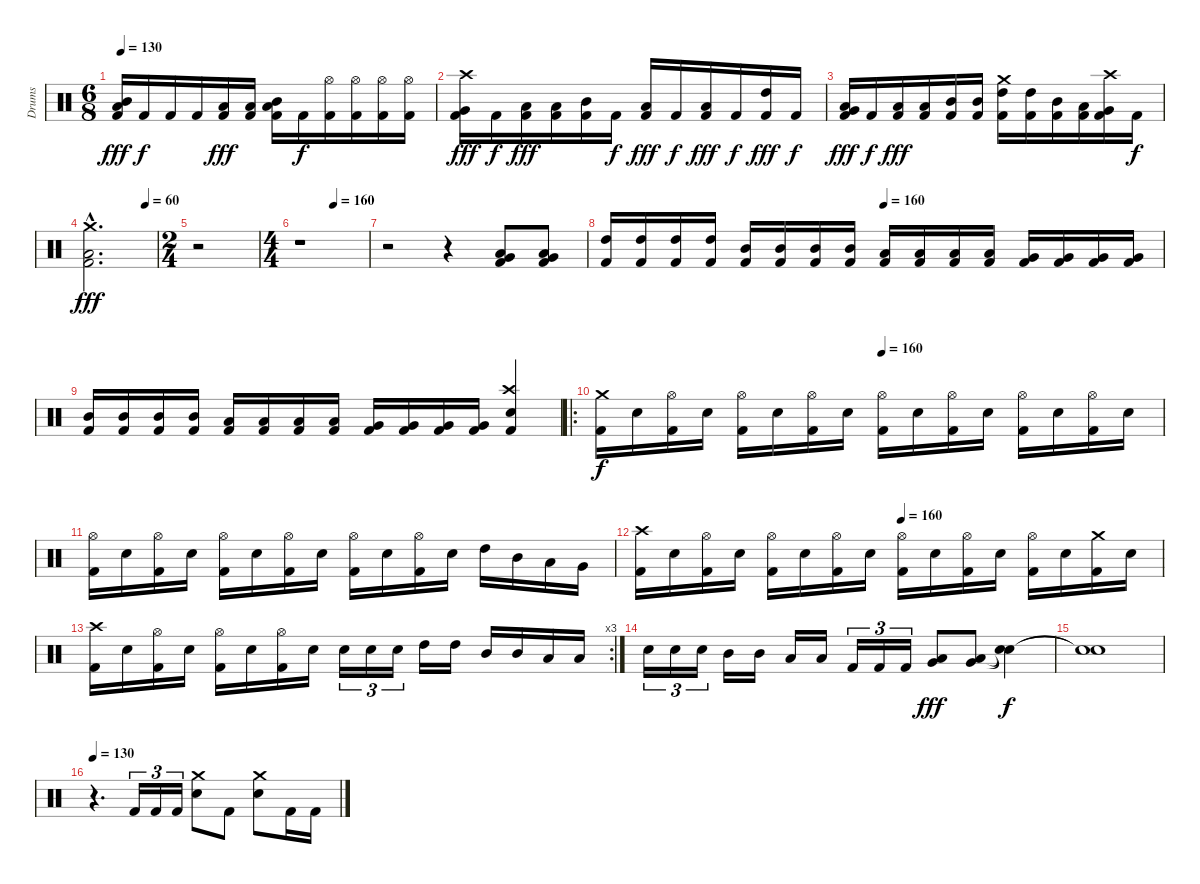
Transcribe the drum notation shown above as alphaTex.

\track ("Drums" "Drums") {instrument percussion}
\staff {score}
\articulation defaults
\ts (6 8)
\tempo 130
\clef neutral
\ks c
("Kick (hit) 2" "Low Floor Tom (hit)" "Mid Tom (hit)").16{dy fff} "Kick (hit) 2".16{dy f} "Kick (hit) 2".16 "Kick (hit) 2".16 ("Kick (hit) 2" "Low Tom (hit)").16{dy fff} ("Kick (hit) 2" "Low Tom (hit)").16 ("Kick (hit) 2" "Mid Tom (hit)" "Low Tom (hit)").16 "Kick (hit) 2".16{dy f} ("Kick (hit) 2" "Hi-Hat (open)").16 ("Kick (hit) 2" "Hi-Hat (open)").16 ("Kick (hit) 2" "Hi-Hat (open)").16 ("Kick (hit) 2" "Hi-Hat (open)").16 |
("Kick (hit) 2" "Very Low Tom (hit)" "Crash high (hit)").16{dy fff} "Kick (hit) 2".16{dy f} ("Kick (hit) 2" "Low Tom (hit)").16{dy fff} ("Kick (hit) 2" "Low Tom (hit)").16 ("Kick (hit) 2" "Mid Tom (hit)").16 "Kick (hit) 2".16{dy f} ("Kick (hit) 2" "Low Tom (hit)").16{dy fff} "Kick (hit) 2".16{dy f} ("Kick (hit) 2" "Low Tom (hit)").16{dy fff} "Kick (hit) 2".16{dy f} ("Kick (hit) 2" "High Tom (hit)").16{dy fff} "Kick (hit) 2".16{dy f} |
("Kick (hit) 2" "Very Low Tom (hit)" "Low Tom (hit)").16{dy fff} "Kick (hit) 2".16{dy f} ("Kick (hit) 2" "Low Tom (hit)").16{dy fff} ("Kick (hit) 2" "Low Tom (hit)").16 ("Kick (hit) 2" "Mid Tom (hit)").16 ("Kick (hit) 2" "Mid Tom (hit)").16 ("Kick (hit) 2" "High Tom (hit)" "Crash medium (hit)").16 ("Kick (hit) 2" "High Tom (hit)").16 ("Kick (hit) 2" "Mid Tom (hit)").16 ("Kick (hit) 2" "Low Tom (hit)").16 ("Kick (hit) 2" "Very Low Tom (hit)" "Crash high (hit)").16 "Kick (hit) 2".16{dy f} |
\tempo (60 0.8333333333333334)
("Kick (hit) 2"{hac} "Low Tom (hit)"{hac} "Crash medium (hit)"{hac}).2{d dy fff} |
\ts (2 4)
r.2 |
\ts (4 4)
\tempo (160 0.5)
r.1 |
r.2 r.4 ("Kick (hit) 2" "Low Tom (hit)" "Very Low Tom (hit)").8 ("Kick (hit) 2" "Low Tom (hit)" "Very Low Tom (hit)").8 |
\tempo (160 0.5)
("Kick (hit) 2" "High Tom (hit)").16 ("Kick (hit) 2" "High Tom (hit)").16 ("Kick (hit) 2" "High Tom (hit)").16 ("Kick (hit) 2" "High Tom (hit)").16 ("Kick (hit) 2" "Mid Tom (hit)").16 ("Kick (hit) 2" "Mid Tom (hit)").16 ("Kick (hit) 2" "Mid Tom (hit)").16 ("Kick (hit) 2" "Mid Tom (hit)").16 ("Kick (hit) 2" "Low Tom (hit)").16 ("Kick (hit) 2" "Low Tom (hit)").16 ("Kick (hit) 2" "Low Tom (hit)").16 ("Kick (hit) 2" "Low Tom (hit)").16 ("Kick (hit) 2" "Very Low Tom (hit)").16 ("Kick (hit) 2" "Very Low Tom (hit)").16 ("Kick (hit) 2" "Very Low Tom (hit)").16 ("Kick (hit) 2" "Very Low Tom (hit)").16 |
("Kick (hit) 2" "Mid Tom (hit)").16 ("Kick (hit) 2" "Mid Tom (hit)").16 ("Kick (hit) 2" "Mid Tom (hit)").16 ("Kick (hit) 2" "Mid Tom (hit)").16 ("Kick (hit) 2" "Low Tom (hit)").16 ("Kick (hit) 2" "Low Tom (hit)").16 ("Kick (hit) 2" "Low Tom (hit)").16 ("Kick (hit) 2" "Low Tom (hit)").16 ("Kick (hit) 2" "Very Low Tom (hit)").16 ("Kick (hit) 2" "Very Low Tom (hit)").16 ("Kick (hit) 2" "Very Low Tom (hit)").16 ("Kick (hit) 2" "Very Low Tom (hit)").16 ("Kick (hit) 2" "Electric Snare (hit)" "Crash high (hit)").4 |
\ro
\tempo (160 0.5)
("Kick (hit) 2" "Crash medium (hit)").16{dy f} "Electric Snare (hit)".16 ("Kick (hit) 2" "Hi-Hat (open)").16 "Electric Snare (hit)".16 ("Kick (hit) 2" "Hi-Hat (open)").16 "Electric Snare (hit)".16 ("Kick (hit) 2" "Hi-Hat (open)").16 "Electric Snare (hit)".16 ("Kick (hit) 2" "Hi-Hat (open)").16 "Electric Snare (hit)".16 ("Kick (hit) 2" "Hi-Hat (open)").16 "Electric Snare (hit)".16 ("Kick (hit) 2" "Hi-Hat (open)").16 "Electric Snare (hit)".16 ("Kick (hit) 2" "Hi-Hat (open)").16 "Electric Snare (hit)".16 |
("Kick (hit) 2" "Hi-Hat (open)").16 "Electric Snare (hit)".16 ("Kick (hit) 2" "Hi-Hat (open)").16 "Electric Snare (hit)".16 ("Kick (hit) 2" "Hi-Hat (open)").16 "Electric Snare (hit)".16 ("Kick (hit) 2" "Hi-Hat (open)").16 "Electric Snare (hit)".16 ("Kick (hit) 2" "Hi-Hat (open)").16 "Electric Snare (hit)".16 ("Kick (hit) 2" "Hi-Hat (open)").16 "Electric Snare (hit)".16 "High Tom (hit)".16 "Mid Tom (hit)".16 "Low Tom (hit)".16 "Very Low Tom (hit)".16 |
\tempo (160 0.5)
("Kick (hit) 2" "Crash high (hit)").16 "Electric Snare (hit)".16 ("Kick (hit) 2" "Hi-Hat (open)").16 "Electric Snare (hit)".16 ("Kick (hit) 2" "Hi-Hat (open)").16 "Electric Snare (hit)".16 ("Kick (hit) 2" "Hi-Hat (open)").16 "Electric Snare (hit)".16 ("Kick (hit) 2" "Hi-Hat (open)").16 "Electric Snare (hit)".16 ("Kick (hit) 2" "Hi-Hat (open)").16 "Electric Snare (hit)".16 ("Kick (hit) 2" "Hi-Hat (open)").16 "Electric Snare (hit)".16 ("Kick (hit) 2" "Crash medium (hit)").16 "Electric Snare (hit)".16 |
\rc 3
("Kick (hit) 2" "Crash high (hit)").16 "Electric Snare (hit)".16 ("Kick (hit) 2" "Hi-Hat (open)").16 "Electric Snare (hit)".16 ("Kick (hit) 2" "Hi-Hat (open)").16 "Electric Snare (hit)".16 ("Kick (hit) 2" "Hi-Hat (open)").16 "Electric Snare (hit)".16 "Electric Snare (hit)".16{tu (3 2)} "Electric Snare (hit)".16{tu (3 2)} "Electric Snare (hit)".16{tu (3 2)} "High Tom (hit)".16 "High Tom (hit)".16 "Mid Tom (hit)".16 "Mid Tom (hit)".16 "Low Tom (hit)".16 "Low Tom (hit)".16 |
"Electric Snare (hit)".16{tu (3 2)} "Electric Snare (hit)".16{tu (3 2)} "Electric Snare (hit)".16{tu (3 2)} "Mid Tom (hit)".16 "Mid Tom (hit)".16 "Low Tom (hit)".16 "Low Tom (hit)".16 "Kick (hit) 2".16{tu (3 2)} "Kick (hit) 2".16{tu (3 2)} "Kick (hit) 2".16{tu (3 2)} ("Very Low Tom (hit)" "Low Tom (hit)").8{dy fff} ("Very Low Tom (hit)" "Low Tom (hit)").8 ("Snare (hit)"{t} "Snare (hit)"{t}).4{dy f} |
("Snare (hit)"{t} "Snare (hit)"{t}).1 |
\tempo 130
r.4{d} "Kick (hit) 2".16{tu (3 2)} "Kick (hit) 2".16{tu (3 2)} "Kick (hit) 2".16{tu (3 2)} ("Electric Snare (hit)" "Crash medium (hit)").8 "Kick (hit) 2".8 ("Electric Snare (hit)" "Crash medium (hit)").8 "Kick (hit) 2".16 "Kick (hit) 2".16
